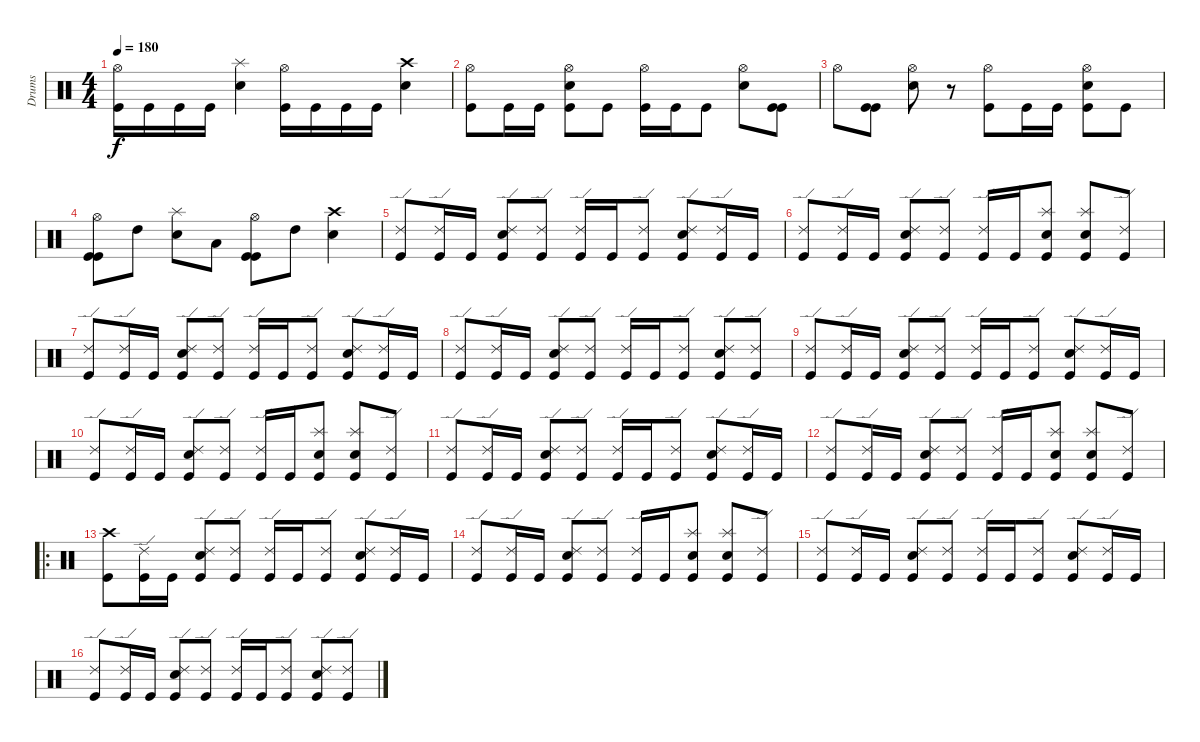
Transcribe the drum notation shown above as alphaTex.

\track ("Drums" "Drums") {instrument percussion}
\staff {score}
\articulation defaults
\ts (4 4)
\tempo 180
\clef neutral
\ks c
("Hi-Hat (open)" "Kick (hit)").16{dy f} "Kick (hit)".16 "Kick (hit)".16 "Kick (hit)".16 ("Splash (hit)" "Snare (hit) 2").4 ("Hi-Hat (open)" "Kick (hit)").16 "Kick (hit)".16 "Kick (hit)".16 "Kick (hit)".16 ("Crash high (hit)" "Snare (hit) 2").4 |
("Hi-Hat (open)" "Kick (hit)").8 "Kick (hit)".16 "Kick (hit)".16 ("Hi-Hat (open)" "Snare (hit) 2" "Kick (hit)").8 "Kick (hit)".8 ("Hi-Hat (open)" "Kick (hit)").16 "Kick (hit)".16 "Kick (hit)".8 ("Hi-Hat (open)" "Snare (hit) 2").8 ("Kick (hit)" "Kick (hit)").8 |
"Hi-Hat (open)".8 ("Kick (hit)" "Kick (hit)").8 ("Hi-Hat (open)" "Snare (hit) 2").8 r.8 ("Hi-Hat (open)" "Kick (hit)").8 "Kick (hit)".16 "Kick (hit)".16 ("Hi-Hat (open)" "Snare (hit) 2" "Kick (hit)").8 "Kick (hit)".8 |
("Hi-Hat (open)" "Kick (hit)" "Kick (hit)").8 "High Tom (hit)".8 ("Splash (hit)" "Snare (hit) 2").8 "Low Tom (hit)".8 ("Hi-Hat (open)" "Kick (hit)" "Kick (hit)").8 "High Tom (hit)".8 ("Crash high (hit)" "Snare (hit) 2").4 |
("Ride (edge) 2" "Kick (hit)").8 ("Ride (edge) 2" "Kick (hit)").16 "Kick (hit)".16 ("Ride (edge) 2" "Snare (hit) 2" "Kick (hit)").8 ("Ride (edge) 2" "Kick (hit)").8 ("Ride (edge) 2" "Kick (hit)").16 "Kick (hit)".16 ("Ride (edge) 2" "Kick (hit)").8 ("Ride (edge) 2" "Snare (hit) 2" "Kick (hit)").8 ("Ride (edge) 2" "Kick (hit)").16 "Kick (hit)".16 |
("Ride (edge) 2" "Kick (hit)").8 ("Ride (edge) 2" "Kick (hit)").16 "Kick (hit)".16 ("Ride (edge) 2" "Snare (hit) 2" "Kick (hit)").8 ("Ride (edge) 2" "Kick (hit)").8 ("Ride (edge) 2" "Kick (hit)").16 "Kick (hit)".16 ("Splash (hit)" "Snare (hit) 2" "Kick (hit)").8 ("Splash (hit)" "Snare (hit) 2" "Kick (hit)").8 ("Ride (edge) 2" "Kick (hit)").8 |
("Ride (edge) 2" "Kick (hit)").8 ("Ride (edge) 2" "Kick (hit)").16 "Kick (hit)".16 ("Ride (edge) 2" "Snare (hit) 2" "Kick (hit)").8 ("Ride (edge) 2" "Kick (hit)").8 ("Ride (edge) 2" "Kick (hit)").16 "Kick (hit)".16 ("Ride (edge) 2" "Kick (hit)").8 ("Ride (edge) 2" "Snare (hit) 2" "Kick (hit)").8 ("Ride (edge) 2" "Kick (hit)").16 "Kick (hit)".16 |
("Ride (edge) 2" "Kick (hit)").8 ("Ride (edge) 2" "Kick (hit)").16 "Kick (hit)".16 ("Ride (edge) 2" "Snare (hit) 2" "Kick (hit)").8 ("Ride (edge) 2" "Kick (hit)").8 ("Ride (edge) 2" "Kick (hit)").16 "Kick (hit)".16 ("Ride (edge) 2" "Kick (hit)").8 ("Ride (edge) 2" "Snare (hit) 2" "Kick (hit)").8 ("Ride (edge) 2" "Kick (hit)").8 |
("Ride (edge) 2" "Kick (hit)").8 ("Ride (edge) 2" "Kick (hit)").16 "Kick (hit)".16 ("Ride (edge) 2" "Snare (hit) 2" "Kick (hit)").8 ("Ride (edge) 2" "Kick (hit)").8 ("Ride (edge) 2" "Kick (hit)").16 "Kick (hit)".16 ("Ride (edge) 2" "Kick (hit)").8 ("Ride (edge) 2" "Snare (hit) 2" "Kick (hit)").8 ("Ride (edge) 2" "Kick (hit)").16 "Kick (hit)".16 |
("Ride (edge) 2" "Kick (hit)").8 ("Ride (edge) 2" "Kick (hit)").16 "Kick (hit)".16 ("Ride (edge) 2" "Snare (hit) 2" "Kick (hit)").8 ("Ride (edge) 2" "Kick (hit)").8 ("Ride (edge) 2" "Kick (hit)").16 "Kick (hit)".16 ("Splash (hit)" "Snare (hit) 2" "Kick (hit)").8 ("Splash (hit)" "Snare (hit) 2" "Kick (hit)").8 ("Ride (edge) 2" "Kick (hit)").8 |
("Ride (edge) 2" "Kick (hit)").8 ("Ride (edge) 2" "Kick (hit)").16 "Kick (hit)".16 ("Ride (edge) 2" "Snare (hit) 2" "Kick (hit)").8 ("Ride (edge) 2" "Kick (hit)").8 ("Ride (edge) 2" "Kick (hit)").16 "Kick (hit)".16 ("Ride (edge) 2" "Kick (hit)").8 ("Ride (edge) 2" "Snare (hit) 2" "Kick (hit)").8 ("Ride (edge) 2" "Kick (hit)").16 "Kick (hit)".16 |
("Ride (edge) 2" "Kick (hit)").8 ("Ride (edge) 2" "Kick (hit)").16 "Kick (hit)".16 ("Ride (edge) 2" "Snare (hit) 2" "Kick (hit)").8 ("Ride (edge) 2" "Kick (hit)").8 ("Ride (edge) 2" "Kick (hit)").16 "Kick (hit)".16 ("Splash (hit)" "Snare (hit) 2" "Kick (hit)").8 ("Splash (hit)" "Snare (hit) 2" "Kick (hit)").8 ("Ride (edge) 2" "Kick (hit)").8 |
\ro
("Crash high (hit)" "Kick (hit)").8 ("Ride (edge) 2" "Kick (hit)").16 "Kick (hit)".16 ("Ride (edge) 2" "Snare (hit) 2" "Kick (hit)").8 ("Ride (edge) 2" "Kick (hit)").8 ("Ride (edge) 2" "Kick (hit)").16 "Kick (hit)".16 ("Ride (edge) 2" "Kick (hit)").8 ("Ride (edge) 2" "Snare (hit) 2" "Kick (hit)").8 ("Ride (edge) 2" "Kick (hit)").16 "Kick (hit)".16 |
("Ride (edge) 2" "Kick (hit)").8 ("Ride (edge) 2" "Kick (hit)").16 "Kick (hit)".16 ("Ride (edge) 2" "Snare (hit) 2" "Kick (hit)").8 ("Ride (edge) 2" "Kick (hit)").8 ("Ride (edge) 2" "Kick (hit)").16 "Kick (hit)".16 ("Splash (hit)" "Snare (hit) 2" "Kick (hit)").8 ("Splash (hit)" "Snare (hit) 2" "Kick (hit)").8 ("Ride (edge) 2" "Kick (hit)").8 |
("Ride (edge) 2" "Kick (hit)").8 ("Ride (edge) 2" "Kick (hit)").16 "Kick (hit)".16 ("Ride (edge) 2" "Snare (hit) 2" "Kick (hit)").8 ("Ride (edge) 2" "Kick (hit)").8 ("Ride (edge) 2" "Kick (hit)").16 "Kick (hit)".16 ("Ride (edge) 2" "Kick (hit)").8 ("Ride (edge) 2" "Snare (hit) 2" "Kick (hit)").8 ("Ride (edge) 2" "Kick (hit)").16 "Kick (hit)".16 |
("Ride (edge) 2" "Kick (hit)").8 ("Ride (edge) 2" "Kick (hit)").16 "Kick (hit)".16 ("Ride (edge) 2" "Snare (hit) 2" "Kick (hit)").8 ("Ride (edge) 2" "Kick (hit)").8 ("Ride (edge) 2" "Kick (hit)").16 "Kick (hit)".16 ("Ride (edge) 2" "Kick (hit)").8 ("Ride (edge) 2" "Snare (hit) 2" "Kick (hit)").8 ("Ride (edge) 2" "Kick (hit)").8
